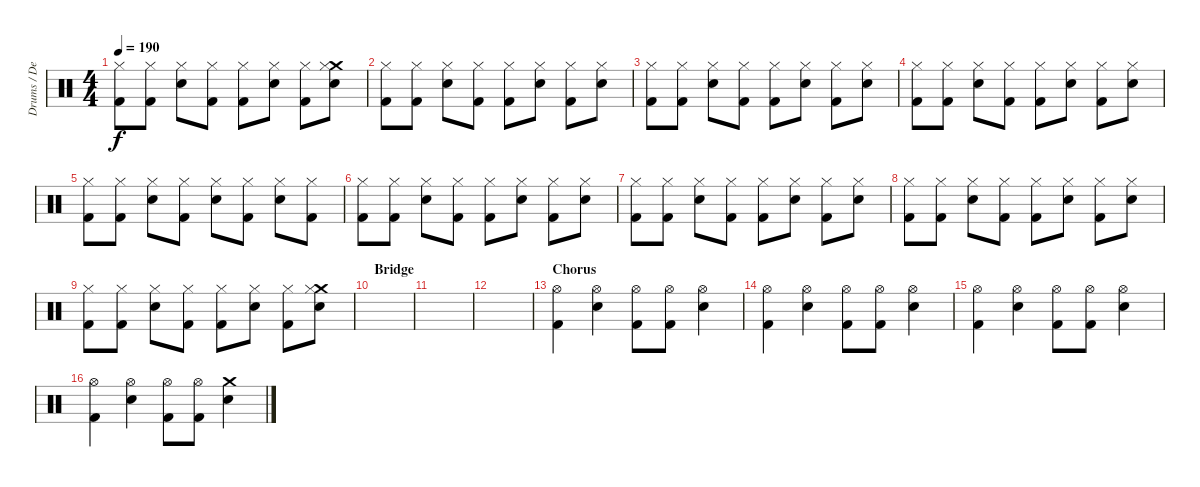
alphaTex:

\track ("Drums / Dennis" "Drums / De") {instrument percussion}
\staff {score}
\articulation defaults
\ts (4 4)
\tempo 190
\clef neutral
\ks c
("Kick (hit) 2" "Hi-Hat (closed)").8{dy f} ("Kick (hit) 2" "Hi-Hat (closed)").8 ("Snare (hit) 2" "Hi-Hat (closed)").8 ("Kick (hit) 2" "Hi-Hat (closed)").8 ("Kick (hit) 2" "Hi-Hat (closed)").8 ("Snare (hit) 2" "Hi-Hat (closed)").8 ("Kick (hit) 2" "Hi-Hat (closed)").8 ("Crash medium (hit)" "Snare (hit) 2" "Hi-Hat (closed)").8 |
("Kick (hit) 2" "Hi-Hat (closed)").8 ("Kick (hit) 2" "Hi-Hat (closed)").8 ("Snare (hit) 2" "Hi-Hat (closed)").8 ("Kick (hit) 2" "Hi-Hat (closed)").8 ("Kick (hit) 2" "Hi-Hat (closed)").8 ("Snare (hit) 2" "Hi-Hat (closed)").8 ("Kick (hit) 2" "Hi-Hat (closed)").8 ("Snare (hit) 2" "Hi-Hat (closed)").8 |
("Kick (hit) 2" "Hi-Hat (closed)").8 ("Kick (hit) 2" "Hi-Hat (closed)").8 ("Snare (hit) 2" "Hi-Hat (closed)").8 ("Kick (hit) 2" "Hi-Hat (closed)").8 ("Kick (hit) 2" "Hi-Hat (closed)").8 ("Snare (hit) 2" "Hi-Hat (closed)").8 ("Kick (hit) 2" "Hi-Hat (closed)").8 ("Snare (hit) 2" "Hi-Hat (closed)").8 |
("Kick (hit) 2" "Hi-Hat (closed)").8 ("Kick (hit) 2" "Hi-Hat (closed)").8 ("Snare (hit) 2" "Hi-Hat (closed)").8 ("Kick (hit) 2" "Hi-Hat (closed)").8 ("Kick (hit) 2" "Hi-Hat (closed)").8 ("Snare (hit) 2" "Hi-Hat (closed)").8 ("Kick (hit) 2" "Hi-Hat (closed)").8 ("Snare (hit) 2" "Hi-Hat (closed)").8 |
("Kick (hit) 2" "Hi-Hat (closed)").8 ("Kick (hit) 2" "Hi-Hat (closed)").8 ("Snare (hit) 2" "Hi-Hat (closed)").8 ("Kick (hit) 2" "Hi-Hat (closed)").8 ("Snare (hit) 2" "Hi-Hat (closed)").8 ("Kick (hit) 2" "Hi-Hat (closed)").8 ("Snare (hit) 2" "Hi-Hat (closed)").8 ("Kick (hit) 2" "Hi-Hat (closed)").8 |
("Kick (hit) 2" "Hi-Hat (closed)").8 ("Kick (hit) 2" "Hi-Hat (closed)").8 ("Snare (hit) 2" "Hi-Hat (closed)").8 ("Kick (hit) 2" "Hi-Hat (closed)").8 ("Kick (hit) 2" "Hi-Hat (closed)").8 ("Snare (hit) 2" "Hi-Hat (closed)").8 ("Kick (hit) 2" "Hi-Hat (closed)").8 ("Snare (hit) 2" "Hi-Hat (closed)").8 |
("Kick (hit) 2" "Hi-Hat (closed)").8 ("Kick (hit) 2" "Hi-Hat (closed)").8 ("Snare (hit) 2" "Hi-Hat (closed)").8 ("Kick (hit) 2" "Hi-Hat (closed)").8 ("Kick (hit) 2" "Hi-Hat (closed)").8 ("Snare (hit) 2" "Hi-Hat (closed)").8 ("Kick (hit) 2" "Hi-Hat (closed)").8 ("Snare (hit) 2" "Hi-Hat (closed)").8 |
("Kick (hit) 2" "Hi-Hat (closed)").8 ("Kick (hit) 2" "Hi-Hat (closed)").8 ("Snare (hit) 2" "Hi-Hat (closed)").8 ("Kick (hit) 2" "Hi-Hat (closed)").8 ("Kick (hit) 2" "Hi-Hat (closed)").8 ("Snare (hit) 2" "Hi-Hat (closed)").8 ("Kick (hit) 2" "Hi-Hat (closed)").8 ("Snare (hit) 2" "Hi-Hat (closed)").8 |
("Kick (hit) 2" "Hi-Hat (closed)").8 ("Kick (hit) 2" "Hi-Hat (closed)").8 ("Snare (hit) 2" "Hi-Hat (closed)").8 ("Kick (hit) 2" "Hi-Hat (closed)").8 ("Kick (hit) 2" "Hi-Hat (closed)").8 ("Snare (hit) 2" "Hi-Hat (closed)").8 ("Kick (hit) 2" "Hi-Hat (closed)").8 ("Crash medium (hit)" "Snare (hit) 2" "Hi-Hat (closed)").8 |
\section ("" "Bridge")
|
|
|
\section ("" "Chorus")
("Kick (hit) 2" "Hi-Hat (open)").4 ("Snare (hit) 2" "Hi-Hat (open)").4 ("Kick (hit) 2" "Hi-Hat (open)").8 ("Kick (hit) 2" "Hi-Hat (open)").8 ("Snare (hit) 2" "Hi-Hat (open)").4 |
("Kick (hit) 2" "Hi-Hat (open)").4 ("Snare (hit) 2" "Hi-Hat (open)").4 ("Kick (hit) 2" "Hi-Hat (open)").8 ("Kick (hit) 2" "Hi-Hat (open)").8 ("Snare (hit) 2" "Hi-Hat (open)").4 |
("Kick (hit) 2" "Hi-Hat (open)").4 ("Snare (hit) 2" "Hi-Hat (open)").4 ("Kick (hit) 2" "Hi-Hat (open)").8 ("Kick (hit) 2" "Hi-Hat (open)").8 ("Snare (hit) 2" "Hi-Hat (open)").4 |
("Kick (hit) 2" "Hi-Hat (open)").4 ("Snare (hit) 2" "Hi-Hat (open)").4 ("Kick (hit) 2" "Hi-Hat (open)").8 ("Kick (hit) 2" "Hi-Hat (open)").8 ("Crash medium (hit)" "Snare (hit) 2").4
